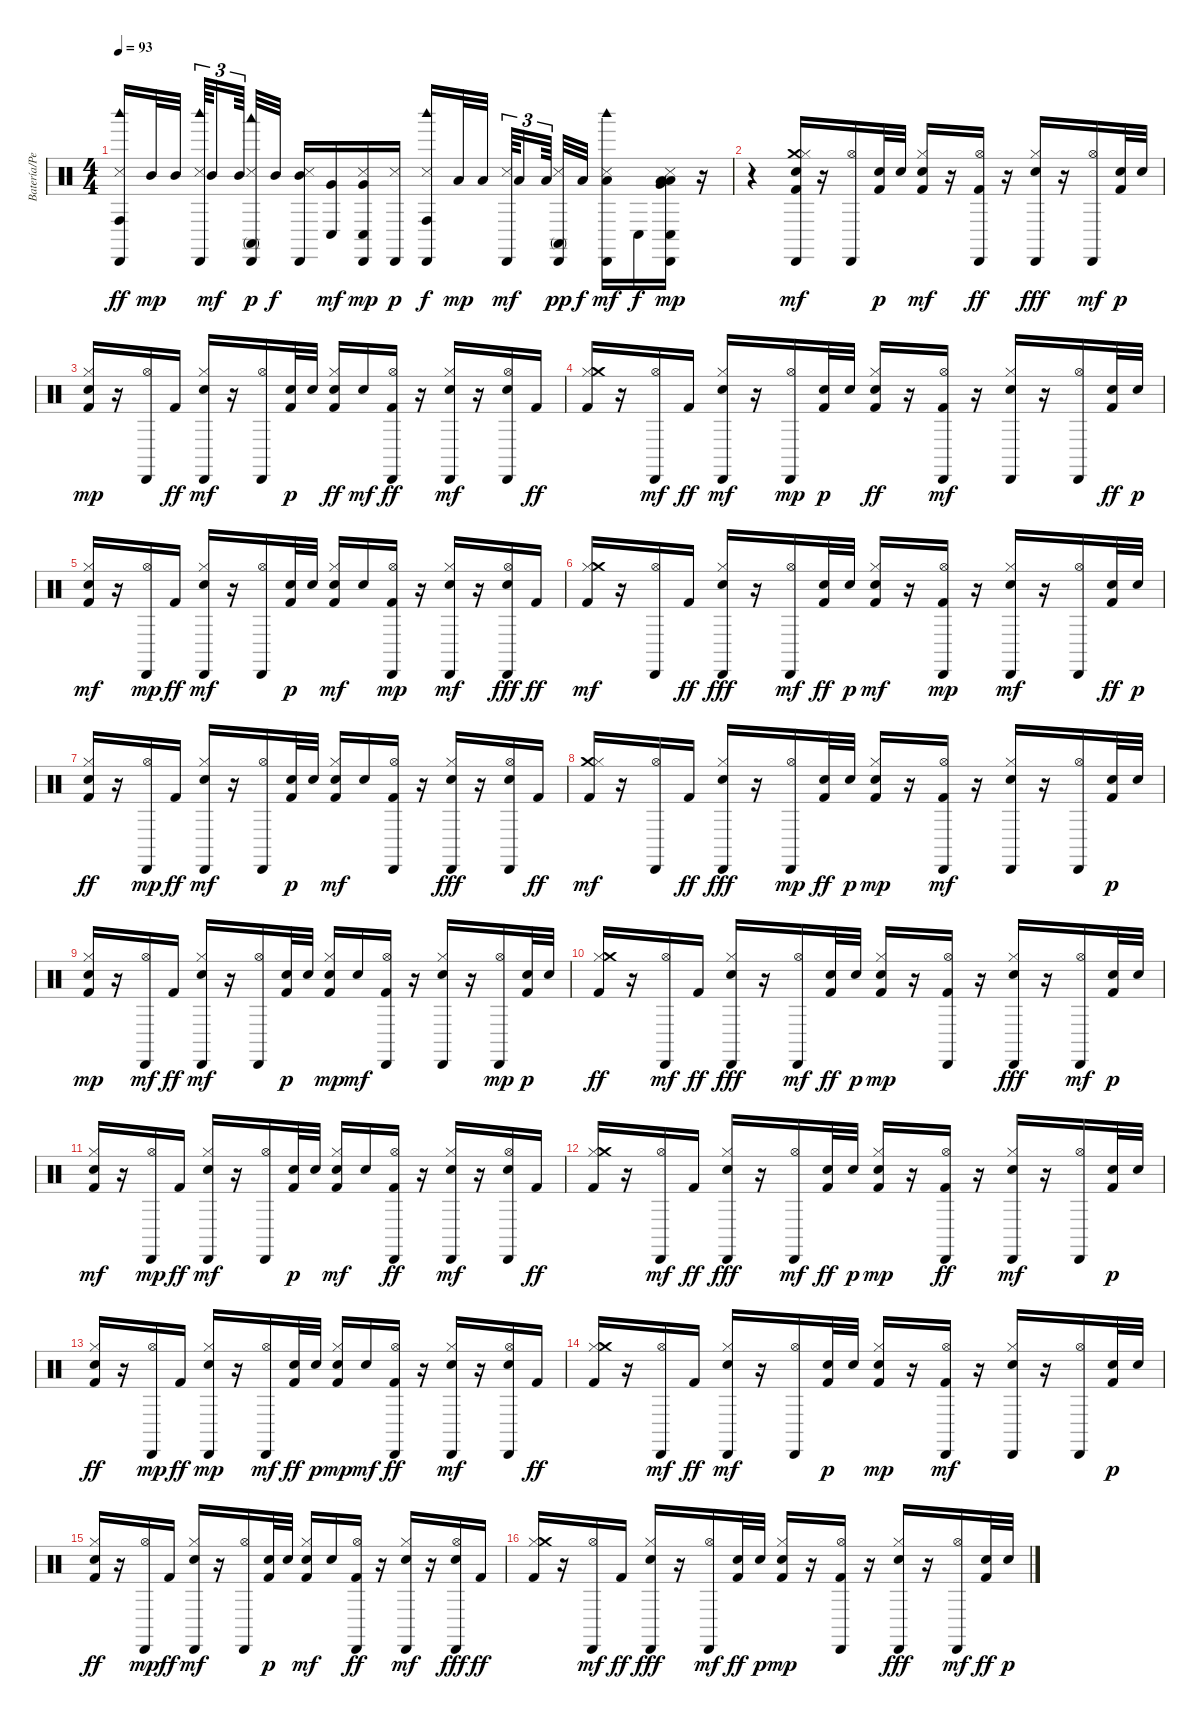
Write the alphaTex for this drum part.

\track ("Batería/Percusión" "Batería/Pe") {instrument percussion}
\staff {score}
\articulation defaults
\ts (4 4)
\tempo 93
\clef neutral
\ks c
("Conga high (hit)" "Woodblock high (hit)" "Snare (side stick) 3" "Cabasa (hit)").16{dy ff} "Mid Tom (hit)".32{dy mp} "Mid Tom (hit)".32{beam splitsecondary} ("Woodblock high (hit)" "Cabasa (hit)" "Snare (side stick) 3").64{tu (3 2)} "Mid Tom (hit)".16{tu (3 2) dy mf} "Mid Tom (hit)".64{tu (3 2) beam splitsecondary} ("Woodblock low (hit)" "Conga high (mute)" "Snare (side stick) 3" "Cabasa (hit)").32{dy p} "Mid Tom (hit)".32{dy f} ("Snare (side stick) 3" "Cabasa (hit)" "Mid Tom (hit)").16 ("Conga low (hit)" "Very Low Tom (hit)").16{dy mf} ("Conga low (hit)" "Snare (side stick) 3" "Very Low Tom (hit)" "Cabasa (hit)").16{dy mp} ("Cabasa (hit)" "Snare (side stick) 3").16{dy p} ("Snare (side stick) 3" "Woodblock high (hit)" "Conga high (hit)" "Cabasa (hit)").16{dy f} "Low Tom (hit)".32{dy mp} "Low Tom (hit)".32{beam splitsecondary} ("Cabasa (hit)" "Snare (side stick) 3").64{tu (3 2) dy mf} "Low Tom (hit)".16{tu (3 2)} "Low Tom (hit)".64{tu (3 2) beam splitsecondary} ("Conga high (mute)" "Snare (side stick) 3" "Cabasa (hit)").32{dy pp} "Low Tom (hit)".32{dy f} ("Cabasa (hit)" "Low Tom (hit)" "Snare (side stick) 3" "Woodblock high (hit)").16{dy mf} "Conga low (hit)".16{dy f} ("Cabasa (hit)" "Conga low (hit)" "Snare (side stick) 3" "Low Tom (hit)" "Very Low Tom (hit)" "Low Floor Tom (hit)").16{dy mp} r.16 |
r.4 ("Kick (hit) 2" "Crash medium (hit)" "Electric Snare (hit)" "Hi-Hat (closed)" "Cabasa (hit)").16{dy mf} r.16 ("Hi-Hat (open)" "Cabasa (hit)").16 ("Kick (hit) 2" "Electric Snare (hit)").32{dy p} "Electric Snare (hit)".32 ("Kick (hit) 2" "Electric Snare (hit)" "Hi-Hat (closed)").16{dy mf} r.16 ("Cabasa (hit)" "Hi-Hat (open)" "Kick (hit) 2").16{dy ff} r.16 ("Cabasa (hit)" "Hi-Hat (closed)" "Electric Snare (hit)").16{dy fff} r.16 ("Hi-Hat (open)" "Cabasa (hit)").16{dy mf} ("Kick (hit) 2" "Electric Snare (hit)").32{dy p} "Electric Snare (hit)".32 |
("Hi-Hat (closed)" "Kick (hit) 2" "Electric Snare (hit)").16{dy mp} r.16 ("Cabasa (hit)" "Hi-Hat (open)").16 "Kick (hit) 2".16{dy ff} ("Hi-Hat (closed)" "Electric Snare (hit)" "Cabasa (hit)").16{dy mf} r.16 ("Cabasa (hit)" "Hi-Hat (open)").16 ("Kick (hit) 2" "Electric Snare (hit)").32{dy p} "Electric Snare (hit)".32 ("Hi-Hat (closed)" "Electric Snare (hit)" "Kick (hit) 2").16{dy ff} "Electric Snare (hit)".16{dy mf} ("Hi-Hat (open)" "Cabasa (hit)" "Kick (hit) 2").16{dy ff} r.16 ("Electric Snare (hit)" "Cabasa (hit)" "Hi-Hat (closed)").16{dy mf} r.16 ("Cabasa (hit)" "Electric Snare (hit)" "Hi-Hat (open)").16 "Kick (hit) 2".16{dy ff} |
("Hi-Hat (closed)" "Kick (hit) 2" "Crash medium (hit)").16 r.16 ("Cabasa (hit)" "Hi-Hat (open)").16{dy mf} "Kick (hit) 2".16{dy ff} ("Hi-Hat (closed)" "Electric Snare (hit)" "Cabasa (hit)").16{dy mf} r.16 ("Cabasa (hit)" "Hi-Hat (open)").16{dy mp} ("Kick (hit) 2" "Electric Snare (hit)").32{dy p} "Electric Snare (hit)".32 ("Electric Snare (hit)" "Hi-Hat (closed)" "Kick (hit) 2").16{dy ff} r.16 ("Kick (hit) 2" "Hi-Hat (open)" "Cabasa (hit)").16{dy mf} r.16 ("Cabasa (hit)" "Electric Snare (hit)" "Hi-Hat (closed)").16 r.16 ("Hi-Hat (open)" "Cabasa (hit)").16 ("Electric Snare (hit)" "Kick (hit) 2").32{dy ff} "Electric Snare (hit)".32{dy p} |
("Kick (hit) 2" "Electric Snare (hit)" "Hi-Hat (closed)").16{dy mf} r.16 ("Hi-Hat (open)" "Cabasa (hit)").16{dy mp} "Kick (hit) 2".16{dy ff} ("Cabasa (hit)" "Electric Snare (hit)" "Hi-Hat (closed)").16{dy mf} r.16 ("Hi-Hat (open)" "Cabasa (hit)").16 ("Kick (hit) 2" "Electric Snare (hit)").32{dy p} "Electric Snare (hit)".32 ("Electric Snare (hit)" "Kick (hit) 2" "Hi-Hat (closed)").16{dy mf} "Electric Snare (hit)".16 ("Hi-Hat (open)" "Kick (hit) 2" "Cabasa (hit)").16{dy mp} r.16 ("Cabasa (hit)" "Electric Snare (hit)" "Hi-Hat (closed)").16{dy mf} r.16 ("Hi-Hat (open)" "Cabasa (hit)" "Electric Snare (hit)").16{dy fff} "Kick (hit) 2".16{dy ff} |
("Kick (hit) 2" "Hi-Hat (closed)" "Crash medium (hit)").16{dy mf} r.16 ("Hi-Hat (open)" "Cabasa (hit)").16 "Kick (hit) 2".16{dy ff} ("Cabasa (hit)" "Hi-Hat (closed)" "Electric Snare (hit)").16{dy fff} r.16 ("Hi-Hat (open)" "Cabasa (hit)").16{dy mf} ("Electric Snare (hit)" "Kick (hit) 2").32{dy ff} "Electric Snare (hit)".32{dy p} ("Kick (hit) 2" "Electric Snare (hit)" "Hi-Hat (closed)").16{dy mf} r.16 ("Kick (hit) 2" "Cabasa (hit)" "Hi-Hat (open)").16{dy mp} r.16 ("Hi-Hat (closed)" "Electric Snare (hit)" "Cabasa (hit)").16{dy mf} r.16 ("Hi-Hat (open)" "Cabasa (hit)").16 ("Electric Snare (hit)" "Kick (hit) 2").32{dy ff} "Electric Snare (hit)".32{dy p} |
("Electric Snare (hit)" "Hi-Hat (closed)" "Kick (hit) 2").16{dy ff} r.16 ("Cabasa (hit)" "Hi-Hat (open)").16{dy mp} "Kick (hit) 2".16{dy ff} ("Electric Snare (hit)" "Hi-Hat (closed)" "Cabasa (hit)").16{dy mf} r.16 ("Hi-Hat (open)" "Cabasa (hit)").16 ("Kick (hit) 2" "Electric Snare (hit)").32{dy p} "Electric Snare (hit)".32 ("Electric Snare (hit)" "Kick (hit) 2" "Hi-Hat (closed)").16{dy mf} "Electric Snare (hit)".16 ("Cabasa (hit)" "Kick (hit) 2" "Hi-Hat (open)").16 r.16 ("Cabasa (hit)" "Hi-Hat (closed)" "Electric Snare (hit)").16{dy fff} r.16 ("Cabasa (hit)" "Hi-Hat (open)" "Electric Snare (hit)").16 "Kick (hit) 2".16{dy ff} |
("Kick (hit) 2" "Crash medium (hit)" "Hi-Hat (closed)").16{dy mf} r.16 ("Hi-Hat (open)" "Cabasa (hit)").16 "Kick (hit) 2".16{dy ff} ("Cabasa (hit)" "Hi-Hat (closed)" "Electric Snare (hit)").16{dy fff} r.16 ("Cabasa (hit)" "Hi-Hat (open)").16{dy mp} ("Electric Snare (hit)" "Kick (hit) 2").32{dy ff} "Electric Snare (hit)".32{dy p} ("Hi-Hat (closed)" "Kick (hit) 2" "Electric Snare (hit)").16{dy mp} r.16 ("Kick (hit) 2" "Hi-Hat (open)" "Cabasa (hit)").16{dy mf} r.16 ("Electric Snare (hit)" "Hi-Hat (closed)" "Cabasa (hit)").16 r.16 ("Hi-Hat (open)" "Cabasa (hit)").16 ("Kick (hit) 2" "Electric Snare (hit)").32{dy p} "Electric Snare (hit)".32 |
("Hi-Hat (closed)" "Kick (hit) 2" "Electric Snare (hit)").16{dy mp} r.16 ("Hi-Hat (open)" "Cabasa (hit)").16{dy mf} "Kick (hit) 2".16{dy ff} ("Electric Snare (hit)" "Cabasa (hit)" "Hi-Hat (closed)").16{dy mf} r.16 ("Hi-Hat (open)" "Cabasa (hit)").16 ("Kick (hit) 2" "Electric Snare (hit)").32{dy p} "Electric Snare (hit)".32 ("Hi-Hat (closed)" "Kick (hit) 2" "Electric Snare (hit)").16{dy mp} "Electric Snare (hit)".16{dy mf} ("Kick (hit) 2" "Cabasa (hit)" "Hi-Hat (open)").16 r.16 ("Cabasa (hit)" "Electric Snare (hit)" "Hi-Hat (closed)").16 r.16 ("Cabasa (hit)" "Hi-Hat (open)").16{dy mp} ("Kick (hit) 2" "Electric Snare (hit)").32{dy p} "Electric Snare (hit)".32 |
("Hi-Hat (closed)" "Kick (hit) 2" "Crash medium (hit)").16{dy ff} r.16 ("Cabasa (hit)" "Hi-Hat (open)").16{dy mf} "Kick (hit) 2".16{dy ff} ("Cabasa (hit)" "Hi-Hat (closed)" "Electric Snare (hit)").16{dy fff} r.16 ("Hi-Hat (open)" "Cabasa (hit)").16{dy mf} ("Electric Snare (hit)" "Kick (hit) 2").32{dy ff} "Electric Snare (hit)".32{dy p} ("Hi-Hat (closed)" "Kick (hit) 2" "Electric Snare (hit)").16{dy mp} r.16 ("Kick (hit) 2" "Cabasa (hit)" "Hi-Hat (open)").16 r.16 ("Cabasa (hit)" "Hi-Hat (closed)" "Electric Snare (hit)").16{dy fff} r.16 ("Cabasa (hit)" "Hi-Hat (open)").16{dy mf} ("Kick (hit) 2" "Electric Snare (hit)").32{dy p} "Electric Snare (hit)".32 |
("Electric Snare (hit)" "Kick (hit) 2" "Hi-Hat (closed)").16{dy mf} r.16 ("Cabasa (hit)" "Hi-Hat (open)").16{dy mp} "Kick (hit) 2".16{dy ff} ("Hi-Hat (closed)" "Electric Snare (hit)" "Cabasa (hit)").16{dy mf} r.16 ("Hi-Hat (open)" "Cabasa (hit)").16 ("Kick (hit) 2" "Electric Snare (hit)").32{dy p} "Electric Snare (hit)".32 ("Kick (hit) 2" "Electric Snare (hit)" "Hi-Hat (closed)").16{dy mf} "Electric Snare (hit)".16 ("Cabasa (hit)" "Hi-Hat (open)" "Kick (hit) 2").16{dy ff} r.16 ("Electric Snare (hit)" "Hi-Hat (closed)" "Cabasa (hit)").16{dy mf} r.16 ("Electric Snare (hit)" "Cabasa (hit)" "Hi-Hat (open)").16 "Kick (hit) 2".16{dy ff} |
("Hi-Hat (closed)" "Kick (hit) 2" "Crash medium (hit)").16 r.16 ("Cabasa (hit)" "Hi-Hat (open)").16{dy mf} "Kick (hit) 2".16{dy ff} ("Cabasa (hit)" "Hi-Hat (closed)" "Electric Snare (hit)").16{dy fff} r.16 ("Hi-Hat (open)" "Cabasa (hit)").16{dy mf} ("Electric Snare (hit)" "Kick (hit) 2").32{dy ff} "Electric Snare (hit)".32{dy p} ("Hi-Hat (closed)" "Kick (hit) 2" "Electric Snare (hit)").16{dy mp} r.16 ("Hi-Hat (open)" "Cabasa (hit)" "Kick (hit) 2").16{dy ff} r.16 ("Electric Snare (hit)" "Hi-Hat (closed)" "Cabasa (hit)").16{dy mf} r.16 ("Hi-Hat (open)" "Cabasa (hit)").16 ("Kick (hit) 2" "Electric Snare (hit)").32{dy p} "Electric Snare (hit)".32 |
("Electric Snare (hit)" "Hi-Hat (closed)" "Kick (hit) 2").16{dy ff} r.16 ("Cabasa (hit)" "Hi-Hat (open)").16{dy mp} "Kick (hit) 2".16{dy ff} ("Electric Snare (hit)" "Hi-Hat (closed)" "Cabasa (hit)").16{dy mp} r.16 ("Cabasa (hit)" "Hi-Hat (open)").16{dy mf} ("Electric Snare (hit)" "Kick (hit) 2").32{dy ff} "Electric Snare (hit)".32{dy p} ("Hi-Hat (closed)" "Kick (hit) 2" "Electric Snare (hit)").16{dy mp} "Electric Snare (hit)".16{dy mf} ("Cabasa (hit)" "Hi-Hat (open)" "Kick (hit) 2").16{dy ff} r.16 ("Electric Snare (hit)" "Cabasa (hit)" "Hi-Hat (closed)").16{dy mf} r.16 ("Electric Snare (hit)" "Hi-Hat (open)" "Cabasa (hit)").16 "Kick (hit) 2".16{dy ff} |
("Hi-Hat (closed)" "Kick (hit) 2" "Crash medium (hit)").16 r.16 ("Cabasa (hit)" "Hi-Hat (open)").16{dy mf} "Kick (hit) 2".16{dy ff} ("Electric Snare (hit)" "Cabasa (hit)" "Hi-Hat (closed)").16{dy mf} r.16 ("Hi-Hat (open)" "Cabasa (hit)").16 ("Kick (hit) 2" "Electric Snare (hit)").32{dy p} "Electric Snare (hit)".32 ("Hi-Hat (closed)" "Kick (hit) 2" "Electric Snare (hit)").16{dy mp} r.16 ("Kick (hit) 2" "Hi-Hat (open)" "Cabasa (hit)").16{dy mf} r.16 ("Electric Snare (hit)" "Hi-Hat (closed)" "Cabasa (hit)").16 r.16 ("Hi-Hat (open)" "Cabasa (hit)").16 ("Kick (hit) 2" "Electric Snare (hit)").32{dy p} "Electric Snare (hit)".32 |
("Hi-Hat (closed)" "Electric Snare (hit)" "Kick (hit) 2").16{dy ff} r.16 ("Cabasa (hit)" "Hi-Hat (open)").16{dy mp} "Kick (hit) 2".16{dy ff} ("Electric Snare (hit)" "Hi-Hat (closed)" "Cabasa (hit)").16{dy mf} r.16 ("Hi-Hat (open)" "Cabasa (hit)").16 ("Kick (hit) 2" "Electric Snare (hit)").32{dy p} "Electric Snare (hit)".32 ("Electric Snare (hit)" "Kick (hit) 2" "Hi-Hat (closed)").16{dy mf} "Electric Snare (hit)".16 ("Hi-Hat (open)" "Cabasa (hit)" "Kick (hit) 2").16{dy ff} r.16 ("Electric Snare (hit)" "Cabasa (hit)" "Hi-Hat (closed)").16{dy mf} r.16 ("Cabasa (hit)" "Hi-Hat (open)" "Electric Snare (hit)").16{dy fff} "Kick (hit) 2".16{dy ff} |
("Hi-Hat (closed)" "Crash medium (hit)" "Kick (hit) 2").16 r.16 ("Cabasa (hit)" "Hi-Hat (open)").16{dy mf} "Kick (hit) 2".16{dy ff} ("Cabasa (hit)" "Hi-Hat (closed)" "Electric Snare (hit)").16{dy fff} r.16 ("Hi-Hat (open)" "Cabasa (hit)").16{dy mf} ("Electric Snare (hit)" "Kick (hit) 2").32{dy ff} "Electric Snare (hit)".32{dy p} ("Hi-Hat (closed)" "Kick (hit) 2" "Electric Snare (hit)").16{dy mp} r.16 ("Kick (hit) 2" "Cabasa (hit)" "Hi-Hat (open)").16 r.16 ("Hi-Hat (closed)" "Cabasa (hit)" "Electric Snare (hit)").16{dy fff} r.16 ("Hi-Hat (open)" "Cabasa (hit)").16{dy mf} ("Electric Snare (hit)" "Kick (hit) 2").32{dy ff} "Electric Snare (hit)".32{dy p}
